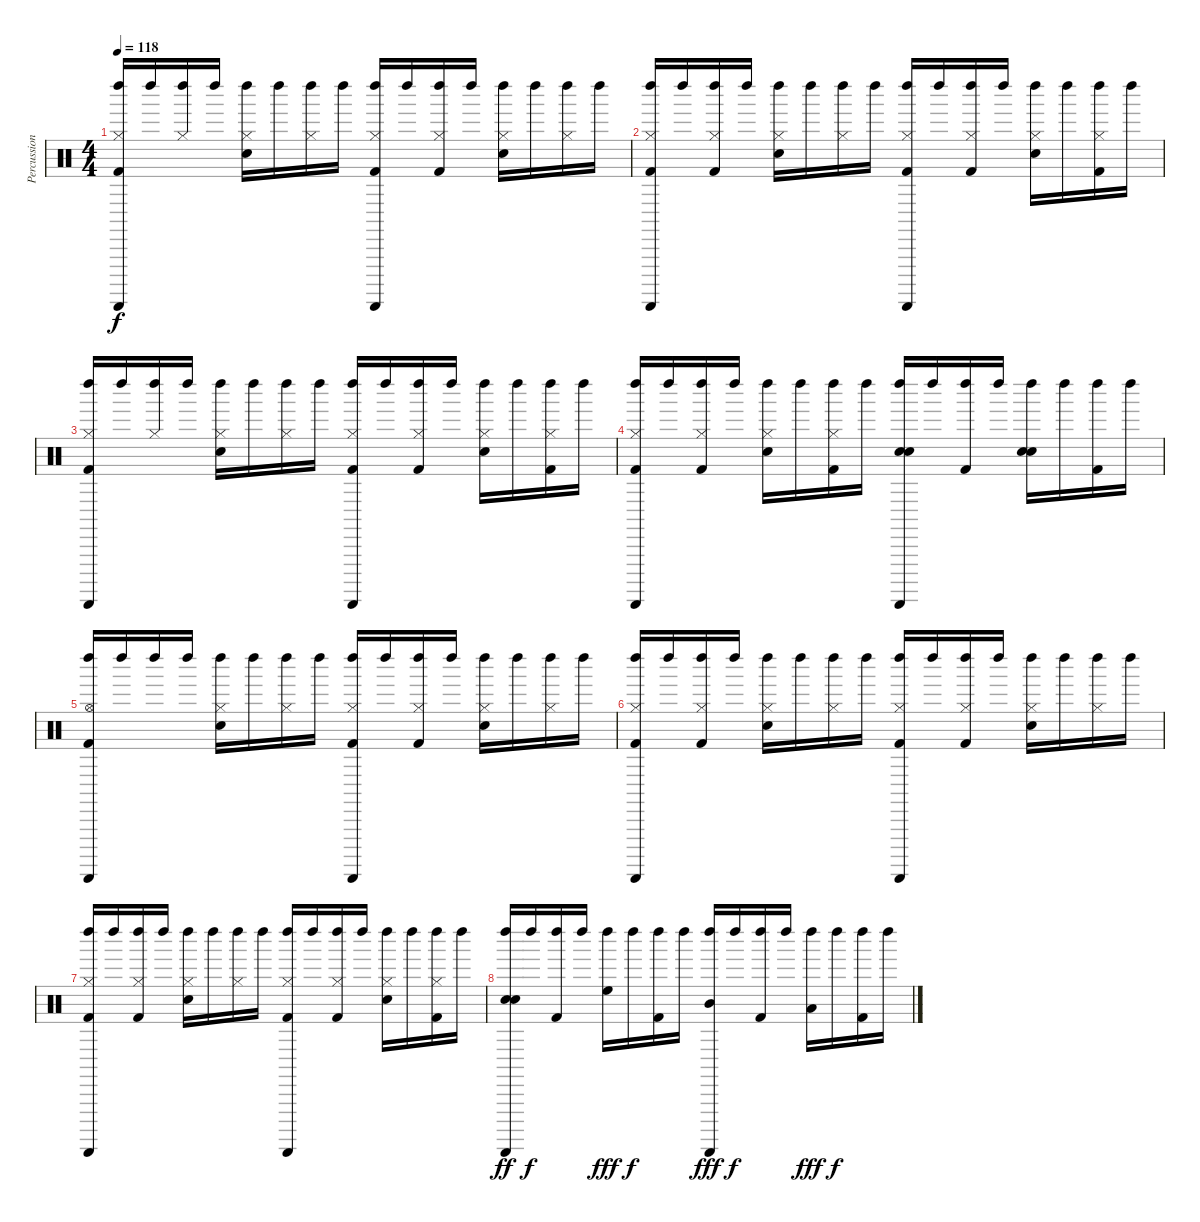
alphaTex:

\track ("Percussions" "Percussion") {instrument percussion}
\staff {score}
\articulation defaults
\ts (4 4)
\tempo 118
\clef neutral
\ks c
("Guiro (scrap-return)" "Left Maraca (hit)" "Hi-Hat (closed)" "Kick (hit) 2").16{dy f} "Left Maraca (hit)".16 ("Left Maraca (hit)" "Hi-Hat (closed)").16 "Left Maraca (hit)".16 ("Left Maraca (hit)" "Hi-Hat (closed)" "Snare (hit) 2").16 "Left Maraca (hit)".16 ("Left Maraca (hit)" "Hi-Hat (closed)").16 "Left Maraca (hit)".16 ("Guiro (scrap-return)" "Left Maraca (hit)" "Hi-Hat (closed)" "Kick (hit) 2").16 "Left Maraca (hit)".16 ("Left Maraca (hit)" "Hi-Hat (closed)" "Kick (hit) 2").16 "Left Maraca (hit)".16 ("Left Maraca (hit)" "Hi-Hat (closed)" "Snare (hit) 2").16 "Left Maraca (hit)".16 ("Left Maraca (hit)" "Hi-Hat (closed)").16 "Left Maraca (hit)".16 |
("Guiro (scrap-return)" "Left Maraca (hit)" "Hi-Hat (closed)" "Kick (hit) 2").16 "Left Maraca (hit)".16 ("Left Maraca (hit)" "Hi-Hat (closed)" "Kick (hit) 2").16 "Left Maraca (hit)".16 ("Left Maraca (hit)" "Hi-Hat (closed)" "Snare (hit) 2").16 "Left Maraca (hit)".16 ("Left Maraca (hit)" "Hi-Hat (closed)").16 "Left Maraca (hit)".16 ("Guiro (scrap-return)" "Left Maraca (hit)" "Hi-Hat (closed)" "Kick (hit) 2").16 "Left Maraca (hit)".16 ("Left Maraca (hit)" "Hi-Hat (closed)" "Kick (hit) 2").16 "Left Maraca (hit)".16 ("Left Maraca (hit)" "Hi-Hat (closed)" "Snare (hit) 2").16 "Left Maraca (hit)".16 ("Left Maraca (hit)" "Hi-Hat (closed)" "Kick (hit) 2").16 "Left Maraca (hit)".16 |
("Guiro (scrap-return)" "Left Maraca (hit)" "Hi-Hat (closed)" "Kick (hit) 2").16 "Left Maraca (hit)".16 ("Left Maraca (hit)" "Hi-Hat (closed)").16 "Left Maraca (hit)".16 ("Left Maraca (hit)" "Hi-Hat (closed)" "Snare (hit) 2").16 "Left Maraca (hit)".16 ("Left Maraca (hit)" "Hi-Hat (closed)").16 "Left Maraca (hit)".16 ("Guiro (scrap-return)" "Left Maraca (hit)" "Hi-Hat (closed)" "Kick (hit) 2").16 "Left Maraca (hit)".16 ("Left Maraca (hit)" "Hi-Hat (closed)" "Kick (hit) 2").16 "Left Maraca (hit)".16 ("Left Maraca (hit)" "Hi-Hat (closed)" "Snare (hit) 2").16 "Left Maraca (hit)".16 ("Left Maraca (hit)" "Hi-Hat (closed)" "Kick (hit) 2").16 "Left Maraca (hit)".16 |
("Guiro (scrap-return)" "Left Maraca (hit)" "Hi-Hat (closed)" "Kick (hit) 2").16 "Left Maraca (hit)".16 ("Left Maraca (hit)" "Hi-Hat (closed)" "Kick (hit) 2").16 "Left Maraca (hit)".16 ("Left Maraca (hit)" "Hi-Hat (closed)" "Snare (hit) 2").16 "Left Maraca (hit)".16 ("Left Maraca (hit)" "Hi-Hat (closed)" "Kick (hit) 2").16 "Left Maraca (hit)".16 ("Guiro (scrap-return)" "Left Maraca (hit)" "Snare (hit) 2" "Snare (hit) 2").16 "Left Maraca (hit)".16 ("Left Maraca (hit)" "Kick (hit) 2").16 "Left Maraca (hit)".16 ("Left Maraca (hit)" "Snare (hit) 2" "Snare (hit) 2").16 "Left Maraca (hit)".16 ("Left Maraca (hit)" "Kick (hit) 2").16 "Left Maraca (hit)".16 |
("Guiro (scrap-return)" "Left Maraca (hit)" "Hi-Hat (open)" "Kick (hit) 2").16 "Left Maraca (hit)".16 "Left Maraca (hit)".16 "Left Maraca (hit)".16 ("Left Maraca (hit)" "Hi-Hat (closed)" "Snare (hit) 2").16 "Left Maraca (hit)".16 ("Left Maraca (hit)" "Hi-Hat (closed)").16 "Left Maraca (hit)".16 ("Guiro (scrap-return)" "Left Maraca (hit)" "Hi-Hat (closed)" "Kick (hit) 2").16 "Left Maraca (hit)".16 ("Left Maraca (hit)" "Hi-Hat (closed)" "Kick (hit) 2").16 "Left Maraca (hit)".16 ("Left Maraca (hit)" "Hi-Hat (closed)" "Snare (hit) 2").16 "Left Maraca (hit)".16 ("Left Maraca (hit)" "Hi-Hat (closed)").16 "Left Maraca (hit)".16 |
("Guiro (scrap-return)" "Left Maraca (hit)" "Hi-Hat (closed)" "Kick (hit) 2").16 "Left Maraca (hit)".16 ("Left Maraca (hit)" "Hi-Hat (closed)" "Kick (hit) 2").16 "Left Maraca (hit)".16 ("Left Maraca (hit)" "Hi-Hat (closed)" "Snare (hit) 2").16 "Left Maraca (hit)".16 ("Left Maraca (hit)" "Hi-Hat (closed)").16 "Left Maraca (hit)".16 ("Guiro (scrap-return)" "Left Maraca (hit)" "Hi-Hat (closed)" "Kick (hit) 2").16 "Left Maraca (hit)".16 ("Left Maraca (hit)" "Hi-Hat (closed)" "Kick (hit) 2").16 "Left Maraca (hit)".16 ("Left Maraca (hit)" "Hi-Hat (closed)" "Snare (hit) 2").16 "Left Maraca (hit)".16 ("Left Maraca (hit)" "Hi-Hat (closed)").16 "Left Maraca (hit)".16 |
("Guiro (scrap-return)" "Left Maraca (hit)" "Hi-Hat (closed)" "Kick (hit) 2").16 "Left Maraca (hit)".16 ("Left Maraca (hit)" "Hi-Hat (closed)" "Kick (hit) 2").16 "Left Maraca (hit)".16 ("Left Maraca (hit)" "Hi-Hat (closed)" "Snare (hit) 2").16 "Left Maraca (hit)".16 ("Left Maraca (hit)" "Hi-Hat (closed)").16 "Left Maraca (hit)".16 ("Guiro (scrap-return)" "Left Maraca (hit)" "Hi-Hat (closed)" "Kick (hit) 2").16 "Left Maraca (hit)".16 ("Left Maraca (hit)" "Hi-Hat (closed)" "Kick (hit) 2").16 "Left Maraca (hit)".16 ("Left Maraca (hit)" "Hi-Hat (closed)" "Snare (hit) 2").16 "Left Maraca (hit)".16 ("Left Maraca (hit)" "Hi-Hat (closed)" "Kick (hit) 2").16 "Left Maraca (hit)".16 |
("Guiro (scrap-return)" "Left Maraca (hit)" "Snare (hit) 2" "Snare (hit) 2").16{dy ff} "Left Maraca (hit)".16{dy f} ("Left Maraca (hit)" "Kick (hit) 2").16 "Left Maraca (hit)".16 ("Left Maraca (hit)" "High Floor Tom (hit)").16{dy fff} "Left Maraca (hit)".16{dy f} ("Left Maraca (hit)" "Kick (hit) 2").16 "Left Maraca (hit)".16 ("Guiro (scrap-return)" "Left Maraca (hit)" "Mid Tom (hit)").16{dy fff} "Left Maraca (hit)".16{dy f} ("Left Maraca (hit)" "Kick (hit) 2").16 "Left Maraca (hit)".16 ("Left Maraca (hit)" "Low Tom (hit)").16{dy fff} "Left Maraca (hit)".16{dy f} ("Left Maraca (hit)" "Kick (hit) 2").16 "Left Maraca (hit)".16
